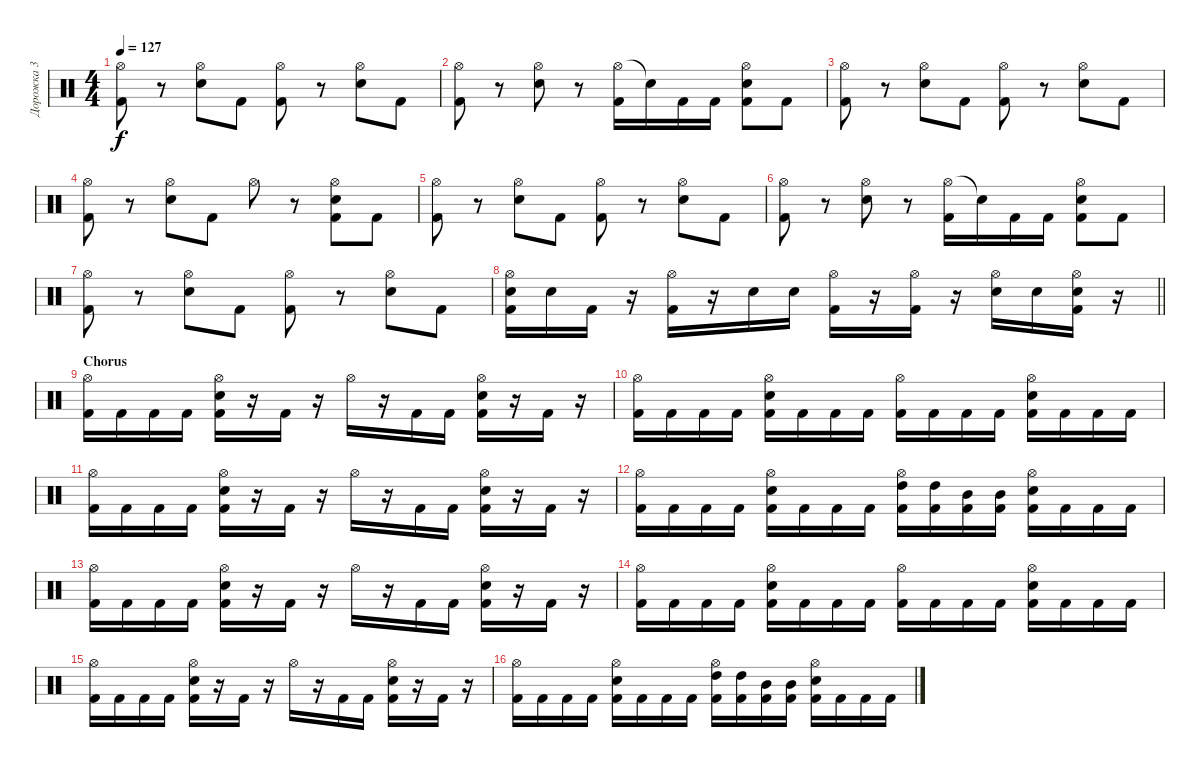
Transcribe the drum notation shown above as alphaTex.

\track ("Дорожка 3" "Дорожка 3") {instrument percussion}
\staff {score}
\articulation defaults
\ts (4 4)
\tempo 127
\clef neutral
\ks c
("Hi-Hat (open)" "Kick (hit) 2").8{dy f} r.8 ("Hi-Hat (open)" "Electric Snare (hit)").8 "Kick (hit) 2".8 ("Hi-Hat (open)" "Kick (hit) 2").8 r.8 ("Hi-Hat (open)" "Electric Snare (hit)").8 "Kick (hit) 2".8 |
("Hi-Hat (open)" "Kick (hit) 2").8 r.8 ("Hi-Hat (open)" "Electric Snare (hit)").8 r.8 ("Hi-Hat (open)" "Kick (hit) 2").16 "Snare (hit)"{t}.16 "Kick (hit) 2".16 "Kick (hit) 2".16 ("Hi-Hat (open)" "Electric Snare (hit)" "Kick (hit) 2").8 "Kick (hit) 2".8 |
("Hi-Hat (open)" "Kick (hit) 2").8 r.8 ("Hi-Hat (open)" "Electric Snare (hit)").8 "Kick (hit) 2".8 ("Hi-Hat (open)" "Kick (hit) 2").8 r.8 ("Hi-Hat (open)" "Electric Snare (hit)").8 "Kick (hit) 2".8 |
("Hi-Hat (open)" "Kick (hit) 2").8 r.8 ("Hi-Hat (open)" "Electric Snare (hit)").8 "Kick (hit) 2".8 "Hi-Hat (open)".8 r.8 ("Hi-Hat (open)" "Electric Snare (hit)" "Kick (hit) 2").8 "Kick (hit) 2".8 |
("Hi-Hat (open)" "Kick (hit) 2").8 r.8 ("Hi-Hat (open)" "Electric Snare (hit)").8 "Kick (hit) 2".8 ("Hi-Hat (open)" "Kick (hit) 2").8 r.8 ("Hi-Hat (open)" "Electric Snare (hit)").8 "Kick (hit) 2".8 |
("Hi-Hat (open)" "Kick (hit) 2").8 r.8 ("Hi-Hat (open)" "Electric Snare (hit)").8 r.8 ("Hi-Hat (open)" "Kick (hit) 2").16 "Snare (hit)"{t}.16 "Kick (hit) 2".16 "Kick (hit) 2".16 ("Hi-Hat (open)" "Electric Snare (hit)" "Kick (hit) 2").8 "Kick (hit) 2".8 |
("Hi-Hat (open)" "Kick (hit) 2").8 r.8 ("Hi-Hat (open)" "Electric Snare (hit)").8 "Kick (hit) 2".8 ("Hi-Hat (open)" "Kick (hit) 2").8 r.8 ("Hi-Hat (open)" "Electric Snare (hit)").8 "Kick (hit) 2".8 |
\barLineRight lightlight
("Hi-Hat (open)" "Electric Snare (hit)" "Kick (hit) 2").16 "Electric Snare (hit)".16 "Kick (hit) 2".16 r.16 ("Hi-Hat (open)" "Kick (hit) 2").16 r.16 "Electric Snare (hit)".16 "Electric Snare (hit)".16 ("Hi-Hat (open)" "Kick (hit) 2").16 r.16 ("Hi-Hat (open)" "Kick (hit) 2").16 r.16 ("Hi-Hat (open)" "Electric Snare (hit)").16 "Electric Snare (hit)".16 ("Hi-Hat (open)" "Electric Snare (hit)" "Kick (hit) 2").16 r.16 |
\section ("" "Chorus")
("Hi-Hat (open)" "Kick (hit) 2").16 "Kick (hit) 2".16 "Kick (hit) 2".16 "Kick (hit) 2".16 ("Hi-Hat (open)" "Electric Snare (hit)" "Kick (hit) 2").16 r.16 "Kick (hit) 2".16 r.16 "Hi-Hat (open)".16 r.16 "Kick (hit) 2".16 "Kick (hit) 2".16 ("Hi-Hat (open)" "Electric Snare (hit)" "Kick (hit) 2").16 r.16 "Kick (hit) 2".16 r.16 |
("Hi-Hat (open)" "Kick (hit) 2").16 "Kick (hit) 2".16 "Kick (hit) 2".16 "Kick (hit) 2".16 ("Hi-Hat (open)" "Electric Snare (hit)" "Kick (hit) 2").16 "Kick (hit) 2".16 "Kick (hit) 2".16 "Kick (hit) 2".16 ("Hi-Hat (open)" "Kick (hit) 2").16 "Kick (hit) 2".16 "Kick (hit) 2".16 "Kick (hit) 2".16 ("Hi-Hat (open)" "Electric Snare (hit)" "Kick (hit) 2").16 "Kick (hit) 2".16 "Kick (hit) 2".16 "Kick (hit) 2".16 |
("Hi-Hat (open)" "Kick (hit) 2").16 "Kick (hit) 2".16 "Kick (hit) 2".16 "Kick (hit) 2".16 ("Hi-Hat (open)" "Electric Snare (hit)" "Kick (hit) 2").16 r.16 "Kick (hit) 2".16 r.16 "Hi-Hat (open)".16 r.16 "Kick (hit) 2".16 "Kick (hit) 2".16 ("Hi-Hat (open)" "Electric Snare (hit)" "Kick (hit) 2").16 r.16 "Kick (hit) 2".16 r.16 |
("Hi-Hat (open)" "Kick (hit) 2").16 "Kick (hit) 2".16 "Kick (hit) 2".16 "Kick (hit) 2".16 ("Hi-Hat (open)" "Electric Snare (hit)" "Kick (hit) 2").16 "Kick (hit) 2".16 "Kick (hit) 2".16 "Kick (hit) 2".16 ("Hi-Hat (open)" "High Tom (hit)" "Kick (hit) 2").16 ("High Tom (hit)" "Kick (hit) 2").16 ("Mid Tom (hit)" "Kick (hit) 2").16 ("Mid Tom (hit)" "Kick (hit) 2").16 ("Hi-Hat (open)" "Electric Snare (hit)" "Kick (hit) 2").16 "Kick (hit) 2".16 "Kick (hit) 2".16 "Kick (hit) 2".16 |
("Hi-Hat (open)" "Kick (hit) 2").16 "Kick (hit) 2".16 "Kick (hit) 2".16 "Kick (hit) 2".16 ("Hi-Hat (open)" "Electric Snare (hit)" "Kick (hit) 2").16 r.16 "Kick (hit) 2".16 r.16 "Hi-Hat (open)".16 r.16 "Kick (hit) 2".16 "Kick (hit) 2".16 ("Hi-Hat (open)" "Electric Snare (hit)" "Kick (hit) 2").16 r.16 "Kick (hit) 2".16 r.16 |
("Hi-Hat (open)" "Kick (hit) 2").16 "Kick (hit) 2".16 "Kick (hit) 2".16 "Kick (hit) 2".16 ("Hi-Hat (open)" "Electric Snare (hit)" "Kick (hit) 2").16 "Kick (hit) 2".16 "Kick (hit) 2".16 "Kick (hit) 2".16 ("Hi-Hat (open)" "Kick (hit) 2").16 "Kick (hit) 2".16 "Kick (hit) 2".16 "Kick (hit) 2".16 ("Hi-Hat (open)" "Electric Snare (hit)" "Kick (hit) 2").16 "Kick (hit) 2".16 "Kick (hit) 2".16 "Kick (hit) 2".16 |
("Hi-Hat (open)" "Kick (hit) 2").16 "Kick (hit) 2".16 "Kick (hit) 2".16 "Kick (hit) 2".16 ("Hi-Hat (open)" "Electric Snare (hit)" "Kick (hit) 2").16 r.16 "Kick (hit) 2".16 r.16 "Hi-Hat (open)".16 r.16 "Kick (hit) 2".16 "Kick (hit) 2".16 ("Hi-Hat (open)" "Electric Snare (hit)" "Kick (hit) 2").16 r.16 "Kick (hit) 2".16 r.16 |
("Hi-Hat (open)" "Kick (hit) 2").16 "Kick (hit) 2".16 "Kick (hit) 2".16 "Kick (hit) 2".16 ("Hi-Hat (open)" "Electric Snare (hit)" "Kick (hit) 2").16 "Kick (hit) 2".16 "Kick (hit) 2".16 "Kick (hit) 2".16 ("Hi-Hat (open)" "High Tom (hit)" "Kick (hit) 2").16 ("High Tom (hit)" "Kick (hit) 2").16 ("Mid Tom (hit)" "Kick (hit) 2").16 ("Mid Tom (hit)" "Kick (hit) 2").16 ("Hi-Hat (open)" "Electric Snare (hit)" "Kick (hit) 2").16 "Kick (hit) 2".16 "Kick (hit) 2".16 "Kick (hit) 2".16
